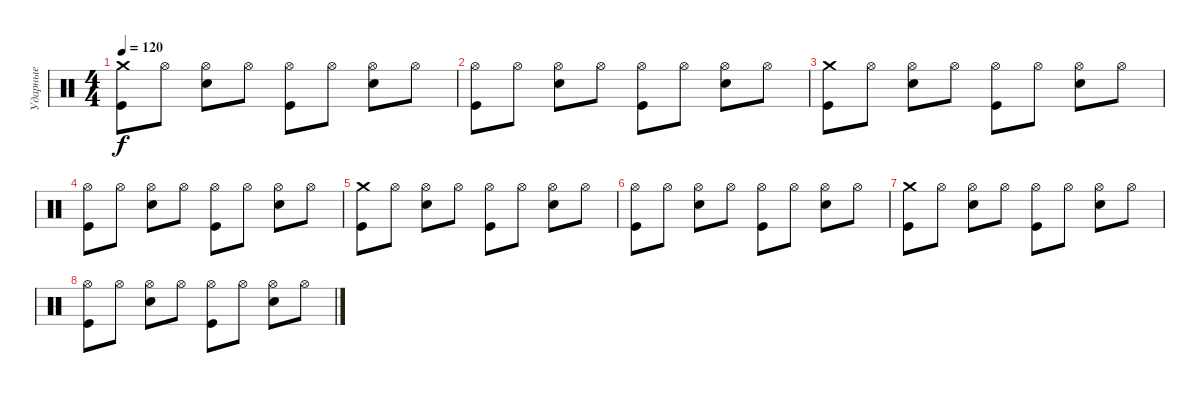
\track ("Ударные" "Ударные") {instrument percussion}
\staff {score}
\articulation defaults
\ts (4 4)
\tempo 120
\clef neutral
\ks c
("Crash medium (hit)" "Kick (hit)").8{dy f} "Hi-Hat (open)".8 ("Hi-Hat (open)" "Snare (hit) 2").8 "Hi-Hat (open)".8 ("Hi-Hat (open)" "Kick (hit)").8 "Hi-Hat (open)".8 ("Hi-Hat (open)" "Snare (hit) 2").8 "Hi-Hat (open)".8 |
("Hi-Hat (open)" "Kick (hit)").8 "Hi-Hat (open)".8 ("Hi-Hat (open)" "Snare (hit) 2").8 "Hi-Hat (open)".8 ("Hi-Hat (open)" "Kick (hit)").8 "Hi-Hat (open)".8 ("Hi-Hat (open)" "Snare (hit) 2").8 "Hi-Hat (open)".8 |
("Crash medium (hit)" "Kick (hit)").8 "Hi-Hat (open)".8 ("Hi-Hat (open)" "Snare (hit) 2").8 "Hi-Hat (open)".8 ("Hi-Hat (open)" "Kick (hit)").8 "Hi-Hat (open)".8 ("Hi-Hat (open)" "Snare (hit) 2").8 "Hi-Hat (open)".8 |
("Hi-Hat (open)" "Kick (hit)").8 "Hi-Hat (open)".8 ("Hi-Hat (open)" "Snare (hit) 2").8 "Hi-Hat (open)".8 ("Hi-Hat (open)" "Kick (hit)").8 "Hi-Hat (open)".8 ("Hi-Hat (open)" "Snare (hit) 2").8 "Hi-Hat (open)".8 |
("Crash medium (hit)" "Kick (hit)").8 "Hi-Hat (open)".8 ("Hi-Hat (open)" "Snare (hit) 2").8 "Hi-Hat (open)".8 ("Hi-Hat (open)" "Kick (hit)").8 "Hi-Hat (open)".8 ("Hi-Hat (open)" "Snare (hit) 2").8 "Hi-Hat (open)".8 |
("Hi-Hat (open)" "Kick (hit)").8 "Hi-Hat (open)".8 ("Hi-Hat (open)" "Snare (hit) 2").8 "Hi-Hat (open)".8 ("Hi-Hat (open)" "Kick (hit)").8 "Hi-Hat (open)".8 ("Hi-Hat (open)" "Snare (hit) 2").8 "Hi-Hat (open)".8 |
("Crash medium (hit)" "Kick (hit)").8 "Hi-Hat (open)".8 ("Hi-Hat (open)" "Snare (hit) 2").8 "Hi-Hat (open)".8 ("Hi-Hat (open)" "Kick (hit)").8 "Hi-Hat (open)".8 ("Hi-Hat (open)" "Snare (hit) 2").8 "Hi-Hat (open)".8 |
("Hi-Hat (open)" "Kick (hit)").8 "Hi-Hat (open)".8 ("Hi-Hat (open)" "Snare (hit) 2").8 "Hi-Hat (open)".8 ("Hi-Hat (open)" "Kick (hit)").8 "Hi-Hat (open)".8 ("Hi-Hat (open)" "Snare (hit) 2").8 "Hi-Hat (open)".8
